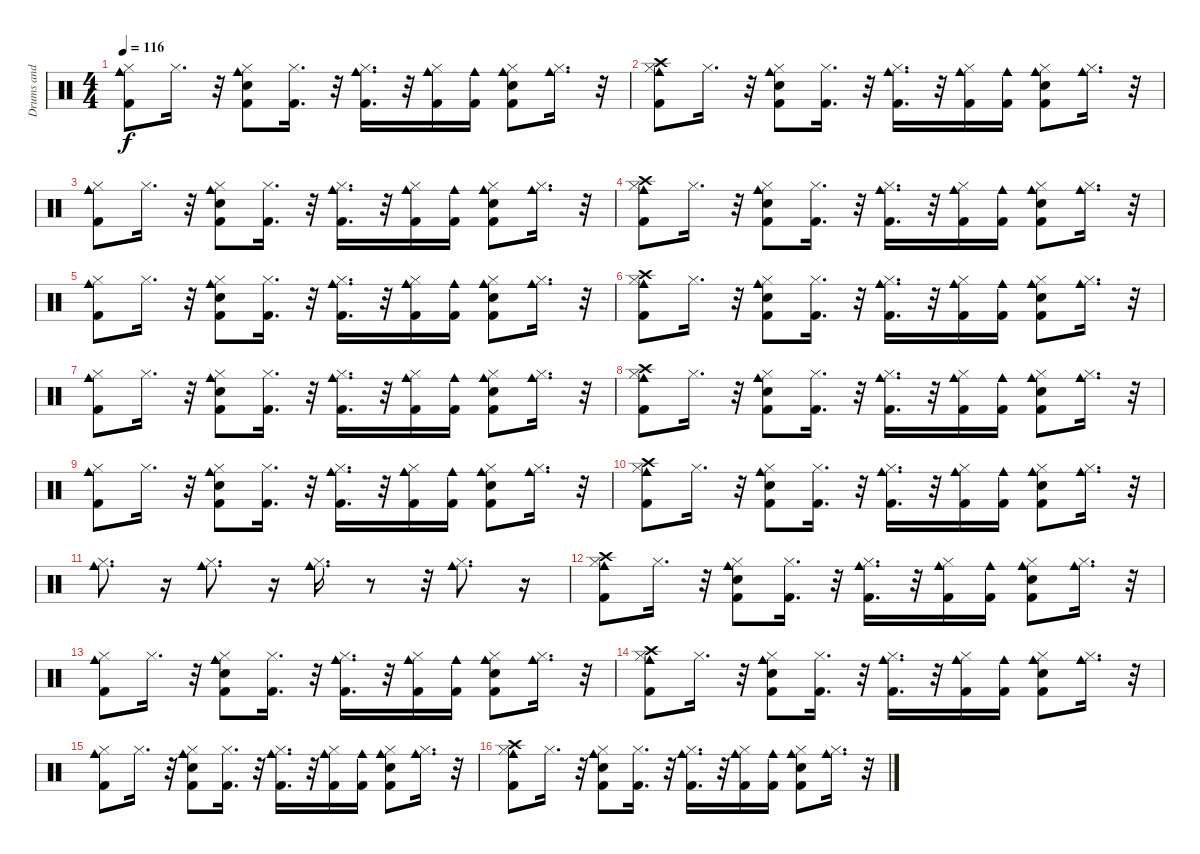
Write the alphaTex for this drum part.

\track ("Drums and Cowbell" "Drums and ") {instrument percussion}
\staff {score}
\articulation defaults
\ts (4 4)
\tempo 116
\clef neutral
\ks c
("Kick (hit) 2" "Hi-Hat (closed)" "Cowbell medium (hit)").8{dy f} "Hi-Hat (closed)".16{d} r.32 ("Snare (hit) 2" "Kick (hit) 2" "Hi-Hat (closed)" "Cowbell medium (hit)").8 ("Kick (hit) 2" "Hi-Hat (closed)").16{d} r.32 ("Hi-Hat (closed)" "Kick (hit) 2" "Cowbell medium (hit)").16{d} r.32 ("Kick (hit) 2" "Hi-Hat (closed)" "Cowbell medium (hit)").16 ("Kick (hit) 2" "Cowbell medium (hit)").16 ("Kick (hit) 2" "Snare (hit) 2" "Hi-Hat (closed)" "Cowbell medium (hit)").8 ("Hi-Hat (closed)" "Cowbell medium (hit)").16{d} r.32 |
("Kick (hit) 2" "Hi-Hat (closed)" "Cowbell medium (hit)" "Crash high (hit)").8 "Hi-Hat (closed)".16{d} r.32 ("Snare (hit) 2" "Kick (hit) 2" "Hi-Hat (closed)" "Cowbell medium (hit)").8 ("Kick (hit) 2" "Hi-Hat (closed)").16{d} r.32 ("Hi-Hat (closed)" "Kick (hit) 2" "Cowbell medium (hit)").16{d} r.32 ("Kick (hit) 2" "Hi-Hat (closed)" "Cowbell medium (hit)").16 ("Kick (hit) 2" "Cowbell medium (hit)").16 ("Kick (hit) 2" "Snare (hit) 2" "Hi-Hat (closed)" "Cowbell medium (hit)").8 ("Hi-Hat (closed)" "Cowbell medium (hit)").16{d} r.32 |
("Kick (hit) 2" "Hi-Hat (closed)" "Cowbell medium (hit)").8 "Hi-Hat (closed)".16{d} r.32 ("Snare (hit) 2" "Kick (hit) 2" "Hi-Hat (closed)" "Cowbell medium (hit)").8 ("Kick (hit) 2" "Hi-Hat (closed)").16{d} r.32 ("Hi-Hat (closed)" "Kick (hit) 2" "Cowbell medium (hit)").16{d} r.32 ("Kick (hit) 2" "Hi-Hat (closed)" "Cowbell medium (hit)").16 ("Kick (hit) 2" "Cowbell medium (hit)").16 ("Kick (hit) 2" "Snare (hit) 2" "Hi-Hat (closed)" "Cowbell medium (hit)").8 ("Hi-Hat (closed)" "Cowbell medium (hit)").16{d} r.32 |
("Kick (hit) 2" "Hi-Hat (closed)" "Cowbell medium (hit)" "Crash high (hit)").8 "Hi-Hat (closed)".16{d} r.32 ("Snare (hit) 2" "Kick (hit) 2" "Hi-Hat (closed)" "Cowbell medium (hit)").8 ("Kick (hit) 2" "Hi-Hat (closed)").16{d} r.32 ("Hi-Hat (closed)" "Kick (hit) 2" "Cowbell medium (hit)").16{d} r.32 ("Kick (hit) 2" "Hi-Hat (closed)" "Cowbell medium (hit)").16 ("Kick (hit) 2" "Cowbell medium (hit)").16 ("Kick (hit) 2" "Snare (hit) 2" "Hi-Hat (closed)" "Cowbell medium (hit)").8 ("Hi-Hat (closed)" "Cowbell medium (hit)").16{d} r.32 |
("Kick (hit) 2" "Hi-Hat (closed)" "Cowbell medium (hit)").8 "Hi-Hat (closed)".16{d} r.32 ("Snare (hit) 2" "Kick (hit) 2" "Hi-Hat (closed)" "Cowbell medium (hit)").8 ("Kick (hit) 2" "Hi-Hat (closed)").16{d} r.32 ("Hi-Hat (closed)" "Kick (hit) 2" "Cowbell medium (hit)").16{d} r.32 ("Kick (hit) 2" "Hi-Hat (closed)" "Cowbell medium (hit)").16 ("Kick (hit) 2" "Cowbell medium (hit)").16 ("Kick (hit) 2" "Snare (hit) 2" "Hi-Hat (closed)" "Cowbell medium (hit)").8 ("Hi-Hat (closed)" "Cowbell medium (hit)").16{d} r.32 |
("Kick (hit) 2" "Hi-Hat (closed)" "Cowbell medium (hit)" "Crash high (hit)").8 "Hi-Hat (closed)".16{d} r.32 ("Snare (hit) 2" "Kick (hit) 2" "Hi-Hat (closed)" "Cowbell medium (hit)").8 ("Kick (hit) 2" "Hi-Hat (closed)").16{d} r.32 ("Hi-Hat (closed)" "Kick (hit) 2" "Cowbell medium (hit)").16{d} r.32 ("Kick (hit) 2" "Hi-Hat (closed)" "Cowbell medium (hit)").16 ("Kick (hit) 2" "Cowbell medium (hit)").16 ("Kick (hit) 2" "Snare (hit) 2" "Hi-Hat (closed)" "Cowbell medium (hit)").8 ("Hi-Hat (closed)" "Cowbell medium (hit)").16{d} r.32 |
("Kick (hit) 2" "Hi-Hat (closed)" "Cowbell medium (hit)").8 "Hi-Hat (closed)".16{d} r.32 ("Snare (hit) 2" "Kick (hit) 2" "Hi-Hat (closed)" "Cowbell medium (hit)").8 ("Kick (hit) 2" "Hi-Hat (closed)").16{d} r.32 ("Hi-Hat (closed)" "Kick (hit) 2" "Cowbell medium (hit)").16{d} r.32 ("Kick (hit) 2" "Hi-Hat (closed)" "Cowbell medium (hit)").16 ("Kick (hit) 2" "Cowbell medium (hit)").16 ("Kick (hit) 2" "Snare (hit) 2" "Hi-Hat (closed)" "Cowbell medium (hit)").8 ("Hi-Hat (closed)" "Cowbell medium (hit)").16{d} r.32 |
("Kick (hit) 2" "Hi-Hat (closed)" "Cowbell medium (hit)" "Crash high (hit)").8 "Hi-Hat (closed)".16{d} r.32 ("Snare (hit) 2" "Kick (hit) 2" "Hi-Hat (closed)" "Cowbell medium (hit)").8 ("Kick (hit) 2" "Hi-Hat (closed)").16{d} r.32 ("Hi-Hat (closed)" "Kick (hit) 2" "Cowbell medium (hit)").16{d} r.32 ("Kick (hit) 2" "Hi-Hat (closed)" "Cowbell medium (hit)").16 ("Kick (hit) 2" "Cowbell medium (hit)").16 ("Kick (hit) 2" "Snare (hit) 2" "Hi-Hat (closed)" "Cowbell medium (hit)").8 ("Hi-Hat (closed)" "Cowbell medium (hit)").16{d} r.32 |
("Kick (hit) 2" "Hi-Hat (closed)" "Cowbell medium (hit)").8 "Hi-Hat (closed)".16{d} r.32 ("Snare (hit) 2" "Kick (hit) 2" "Hi-Hat (closed)" "Cowbell medium (hit)").8 ("Kick (hit) 2" "Hi-Hat (closed)").16{d} r.32 ("Hi-Hat (closed)" "Kick (hit) 2" "Cowbell medium (hit)").16{d} r.32 ("Kick (hit) 2" "Hi-Hat (closed)" "Cowbell medium (hit)").16 ("Kick (hit) 2" "Cowbell medium (hit)").16 ("Kick (hit) 2" "Snare (hit) 2" "Hi-Hat (closed)" "Cowbell medium (hit)").8 ("Hi-Hat (closed)" "Cowbell medium (hit)").16{d} r.32 |
("Kick (hit) 2" "Hi-Hat (closed)" "Cowbell medium (hit)" "Crash high (hit)").8 "Hi-Hat (closed)".16{d} r.32 ("Snare (hit) 2" "Kick (hit) 2" "Hi-Hat (closed)" "Cowbell medium (hit)").8 ("Kick (hit) 2" "Hi-Hat (closed)").16{d} r.32 ("Hi-Hat (closed)" "Kick (hit) 2" "Cowbell medium (hit)").16{d} r.32 ("Kick (hit) 2" "Hi-Hat (closed)" "Cowbell medium (hit)").16 ("Kick (hit) 2" "Cowbell medium (hit)").16 ("Kick (hit) 2" "Snare (hit) 2" "Hi-Hat (closed)" "Cowbell medium (hit)").8 ("Hi-Hat (closed)" "Cowbell medium (hit)").16{d} r.32 |
("Hi-Hat (closed)" "Cowbell medium (hit)").8{d} r.16 ("Hi-Hat (closed)" "Cowbell medium (hit)").8{d} r.16 ("Hi-Hat (closed)" "Cowbell medium (hit)").16{d} r.8 r.32 ("Hi-Hat (closed)" "Cowbell medium (hit)").8{d} r.16 |
("Kick (hit) 2" "Hi-Hat (closed)" "Crash high (hit)" "Cowbell medium (hit)").8 "Hi-Hat (closed)".16{d} r.32 ("Snare (hit) 2" "Kick (hit) 2" "Hi-Hat (closed)" "Cowbell medium (hit)").8 ("Kick (hit) 2" "Hi-Hat (closed)").16{d} r.32 ("Hi-Hat (closed)" "Kick (hit) 2" "Cowbell medium (hit)").16{d} r.32 ("Kick (hit) 2" "Hi-Hat (closed)" "Cowbell medium (hit)").16 ("Kick (hit) 2" "Cowbell medium (hit)").16 ("Kick (hit) 2" "Snare (hit) 2" "Hi-Hat (closed)" "Cowbell medium (hit)").8 ("Hi-Hat (closed)" "Cowbell medium (hit)").16{d} r.32 |
("Kick (hit) 2" "Hi-Hat (closed)" "Cowbell medium (hit)").8 "Hi-Hat (closed)".16{d} r.32 ("Snare (hit) 2" "Kick (hit) 2" "Hi-Hat (closed)" "Cowbell medium (hit)").8 ("Kick (hit) 2" "Hi-Hat (closed)").16{d} r.32 ("Hi-Hat (closed)" "Kick (hit) 2" "Cowbell medium (hit)").16{d} r.32 ("Kick (hit) 2" "Hi-Hat (closed)" "Cowbell medium (hit)").16 ("Kick (hit) 2" "Cowbell medium (hit)").16 ("Kick (hit) 2" "Snare (hit) 2" "Hi-Hat (closed)" "Cowbell medium (hit)").8 ("Hi-Hat (closed)" "Cowbell medium (hit)").16{d} r.32 |
("Kick (hit) 2" "Hi-Hat (closed)" "Crash high (hit)" "Cowbell medium (hit)").8 "Hi-Hat (closed)".16{d} r.32 ("Snare (hit) 2" "Kick (hit) 2" "Hi-Hat (closed)" "Cowbell medium (hit)").8 ("Kick (hit) 2" "Hi-Hat (closed)").16{d} r.32 ("Hi-Hat (closed)" "Kick (hit) 2" "Cowbell medium (hit)").16{d} r.32 ("Kick (hit) 2" "Hi-Hat (closed)" "Cowbell medium (hit)").16 ("Kick (hit) 2" "Cowbell medium (hit)").16 ("Kick (hit) 2" "Snare (hit) 2" "Hi-Hat (closed)" "Cowbell medium (hit)").8 ("Hi-Hat (closed)" "Cowbell medium (hit)").16{d} r.32 |
("Kick (hit) 2" "Hi-Hat (closed)" "Cowbell medium (hit)").8 "Hi-Hat (closed)".16{d} r.32 ("Snare (hit) 2" "Kick (hit) 2" "Hi-Hat (closed)" "Cowbell medium (hit)").8 ("Kick (hit) 2" "Hi-Hat (closed)").16{d} r.32 ("Hi-Hat (closed)" "Kick (hit) 2" "Cowbell medium (hit)").16{d} r.32 ("Kick (hit) 2" "Hi-Hat (closed)" "Cowbell medium (hit)").16 ("Kick (hit) 2" "Cowbell medium (hit)").16 ("Kick (hit) 2" "Snare (hit) 2" "Hi-Hat (closed)" "Cowbell medium (hit)").8 ("Hi-Hat (closed)" "Cowbell medium (hit)").16{d} r.32 |
("Kick (hit) 2" "Hi-Hat (closed)" "Crash high (hit)" "Cowbell medium (hit)").8 "Hi-Hat (closed)".16{d} r.32 ("Snare (hit) 2" "Kick (hit) 2" "Hi-Hat (closed)" "Cowbell medium (hit)").8 ("Kick (hit) 2" "Hi-Hat (closed)").16{d} r.32 ("Hi-Hat (closed)" "Kick (hit) 2" "Cowbell medium (hit)").16{d} r.32 ("Kick (hit) 2" "Hi-Hat (closed)" "Cowbell medium (hit)").16 ("Kick (hit) 2" "Cowbell medium (hit)").16 ("Kick (hit) 2" "Snare (hit) 2" "Hi-Hat (closed)" "Cowbell medium (hit)").8 ("Hi-Hat (closed)" "Cowbell medium (hit)").16{d} r.32
